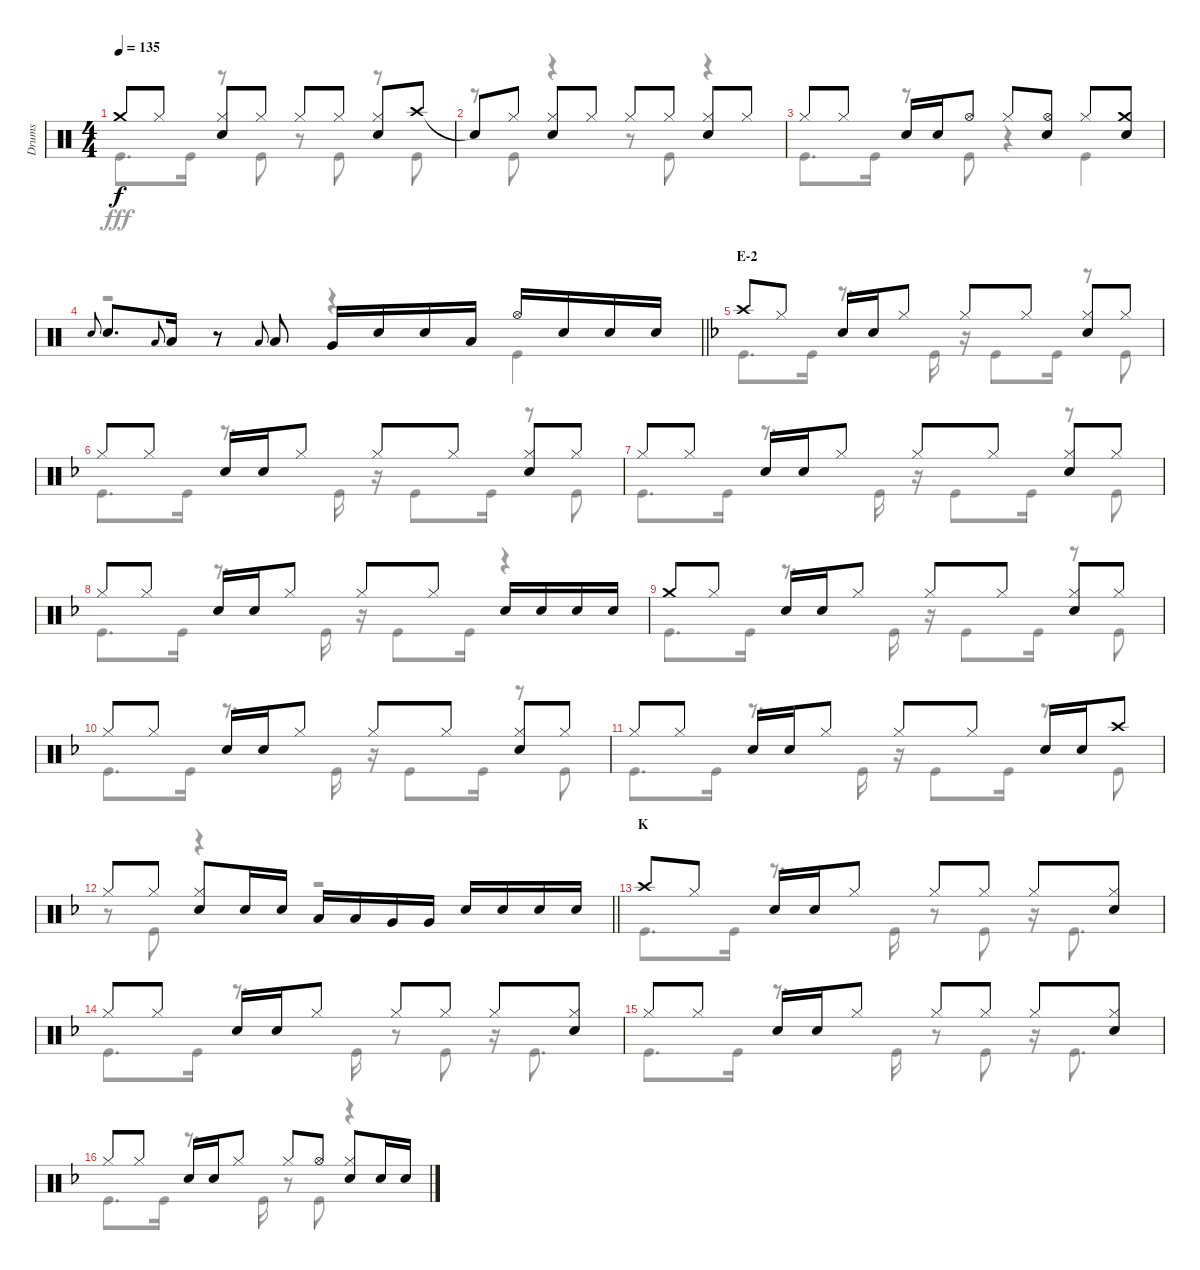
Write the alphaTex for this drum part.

\track ("Drums" "Drums") {instrument percussion}
\staff {score}
\articulation defaults
\voice
\ts (4 4)
\tempo 135
\clef neutral
\ks c "Crash medium (hit)".8{dy f} "Hi-Hat (closed)".8
("Hi-Hat (closed)" "Snare (hit) 2").8 "Hi-Hat (closed)".8 "Hi-Hat (closed)".8 "Hi-Hat (closed)".8 ("Hi-Hat (closed)" "Snare (hit) 2").8 "Crash high (hit)".8 |
"Snare (hit)"{t}.8 "Hi-Hat (closed)".8 ("Hi-Hat (closed)" "Snare (hit) 2").8 "Hi-Hat (closed)".8 "Hi-Hat (closed)".8 "Hi-Hat (closed)".8 ("Hi-Hat (closed)" "Snare (hit) 2").8 "Hi-Hat (closed)".8 |
"Hi-Hat (closed)".8 "Hi-Hat (closed)".8 "Snare (hit) 2".16 "Snare (hit) 2".16 "Hi-Hat (open)".8 "Hi-Hat (closed)".8 ("Hi-Hat (open)" "Snare (hit) 2").8 "Hi-Hat (closed)".8 ("Crash medium (hit)" "Snare (hit) 2").8 |
\barLineRight lightlight "Snare (hit) 2".8{gr onbeat} "Snare (hit) 2".8{d} "Low Tom (hit)".8{gr onbeat} "Low Tom (hit)".16
r.8 "Low Tom (hit)".8{gr onbeat} "Low Tom (hit)".8 "Very Low Tom (hit)".16 "Snare (hit) 2".16 "Snare (hit) 2".16 "Low Tom (hit)".16 "Hi-Hat (open)".16 "Snare (hit) 2".16 "Snare (hit) 2".16 "Snare (hit) 2".16 |
\section ("" "E-2")
\ks f "Crash high (hit)".8 "Hi-Hat (closed)".8 "Snare (hit) 2".16 "Snare (hit) 2".16 "Hi-Hat (closed)".8 "Hi-Hat (closed)".8 "Hi-Hat (closed)".8
("Hi-Hat (closed)" "Snare (hit) 2").8 "Hi-Hat (closed)".8 |
"Hi-Hat (closed)".8 "Hi-Hat (closed)".8 "Snare (hit) 2".16 "Snare (hit) 2".16 "Hi-Hat (closed)".8 "Hi-Hat (closed)".8 "Hi-Hat (closed)".8 ("Hi-Hat (closed)" "Snare (hit) 2").8 "Hi-Hat (closed)".8 |
"Hi-Hat (closed)".8 "Hi-Hat (closed)".8 "Snare (hit) 2".16 "Snare (hit) 2".16 "Hi-Hat (closed)".8 "Hi-Hat (closed)".8 "Hi-Hat (closed)".8 ("Hi-Hat (closed)" "Snare (hit) 2").8 "Hi-Hat (closed)".8 |
"Hi-Hat (closed)".8 "Hi-Hat (closed)".8 "Snare (hit) 2".16 "Snare (hit) 2".16 "Hi-Hat (closed)".8 "Hi-Hat (closed)".8 "Hi-Hat (closed)".8 "Snare (hit) 2".16 "Snare (hit) 2".16 "Snare (hit) 2".16 "Snare (hit) 2".16 |
"Crash medium (hit)".8 "Hi-Hat (closed)".8 "Snare (hit) 2".16 "Snare (hit) 2".16 "Hi-Hat (closed)".8 "Hi-Hat (closed)".8 "Hi-Hat (closed)".8 ("Hi-Hat (closed)" "Snare (hit) 2").8 "Hi-Hat (closed)".8 |
"Hi-Hat (closed)".8 "Hi-Hat (closed)".8 "Snare (hit) 2".16 "Snare (hit) 2".16 "Hi-Hat (closed)".8 "Hi-Hat (closed)".8 "Hi-Hat (closed)".8 ("Hi-Hat (closed)" "Snare (hit) 2").8 "Hi-Hat (closed)".8 |
"Hi-Hat (closed)".8 "Hi-Hat (closed)".8 "Snare (hit) 2".16 "Snare (hit) 2".16 "Hi-Hat (closed)".8 "Hi-Hat (closed)".8 "Hi-Hat (closed)".8 "Snare (hit) 2".16 "Snare (hit) 2".16 "Crash high (hit)".8 |
\barLineRight lightlight "Hi-Hat (closed)".8 "Hi-Hat (closed)".8
("Hi-Hat (closed)" "Snare (hit) 2").8 "Snare (hit) 2".16 "Snare (hit) 2".16 "Low Tom (hit)".16 "Low Tom (hit)".16 "Very Low Tom (hit)".16 "Very Low Tom (hit)".16 "Snare (hit) 2".16 "Snare (hit) 2".16 "Snare (hit) 2".16 "Snare (hit) 2".16 |
\section ("" "K")
"Crash high (hit)".8 "Hi-Hat (closed)".8 "Snare (hit) 2".16 "Snare (hit) 2".16 "Hi-Hat (closed)".8 "Hi-Hat (closed)".8 "Hi-Hat (closed)".8 "Hi-Hat (closed)".8 ("Hi-Hat (closed)" "Snare (hit) 2").8 |
"Hi-Hat (closed)".8 "Hi-Hat (closed)".8 "Snare (hit) 2".16 "Snare (hit) 2".16 "Hi-Hat (closed)".8 "Hi-Hat (closed)".8 "Hi-Hat (closed)".8 "Hi-Hat (closed)".8 ("Hi-Hat (closed)" "Snare (hit) 2").8 |
"Hi-Hat (closed)".8 "Hi-Hat (closed)".8 "Snare (hit) 2".16 "Snare (hit) 2".16 "Hi-Hat (closed)".8 "Hi-Hat (closed)".8 "Hi-Hat (closed)".8 "Hi-Hat (closed)".8 ("Hi-Hat (closed)" "Snare (hit) 2").8 |
"Hi-Hat (closed)".8 "Hi-Hat (closed)".8 "Snare (hit) 2".16 "Snare (hit) 2".16 "Hi-Hat (closed)".8 "Hi-Hat (closed)".8 "Hi-Hat (open)".8 ("Hi-Hat (closed)" "Snare (hit) 2").8 "Snare (hit) 2".16 "Snare (hit) 2".16
\voice
\clef neutral
\ottava regular
\simile none
\ks c "Kick (hit)".8{d dy fff} "Kick (hit)".16
r.8 "Kick (hit)".8 r.8 "Kick (hit)".8 r.8 "Kick (hit)".8 |
r.8 "Kick (hit)".8 r.4 r.8 "Kick (hit)".8 r.4 |
"Kick (hit)".8{d} "Kick (hit)".16 r.8 "Kick (hit)".8 r.4 "Kick (hit)".4 |
\barLineRight lightlight
r.2 r.4 "Kick (hit)".4 |
\ks f "Kick (hit)".8{d} "Kick (hit)".16
r.8{d} "Kick (hit)".16 r.16 "Kick (hit)".8 "Kick (hit)".16 r.8 "Kick (hit)".8 |
"Kick (hit)".8{d} "Kick (hit)".16 r.8{d} "Kick (hit)".16 r.16 "Kick (hit)".8 "Kick (hit)".16 r.8 "Kick (hit)".8 |
"Kick (hit)".8{d} "Kick (hit)".16 r.8{d} "Kick (hit)".16 r.16 "Kick (hit)".8 "Kick (hit)".16 r.8 "Kick (hit)".8 |
"Kick (hit)".8{d} "Kick (hit)".16 r.8{d} "Kick (hit)".16 r.16 "Kick (hit)".8 "Kick (hit)".16 r.4 |
"Kick (hit)".8{d} "Kick (hit)".16 r.8{d} "Kick (hit)".16 r.16 "Kick (hit)".8 "Kick (hit)".16 r.8 "Kick (hit)".8 |
"Kick (hit)".8{d} "Kick (hit)".16 r.8{d} "Kick (hit)".16 r.16 "Kick (hit)".8 "Kick (hit)".16 r.8 "Kick (hit)".8 |
"Kick (hit)".8{d} "Kick (hit)".16 r.8{d} "Kick (hit)".16 r.16 "Kick (hit)".8 "Kick (hit)".16 r.8 "Kick (hit)".8 |
\barLineRight lightlight
r.8 "Kick (hit)".8 r.4 r.2 |
"Kick (hit)".8{d} "Kick (hit)".16 r.8{d} "Kick (hit)".16 r.8 "Kick (hit)".8 r.16 "Kick (hit)".8{d} |
"Kick (hit)".8{d} "Kick (hit)".16 r.8{d} "Kick (hit)".16 r.8 "Kick (hit)".8 r.16 "Kick (hit)".8{d} |
"Kick (hit)".8{d} "Kick (hit)".16 r.8{d} "Kick (hit)".16 r.8 "Kick (hit)".8 r.16 "Kick (hit)".8{d} |
"Kick (hit)".8{d} "Kick (hit)".16 r.8{d} "Kick (hit)".16 r.8 "Kick (hit)".8 r.4
